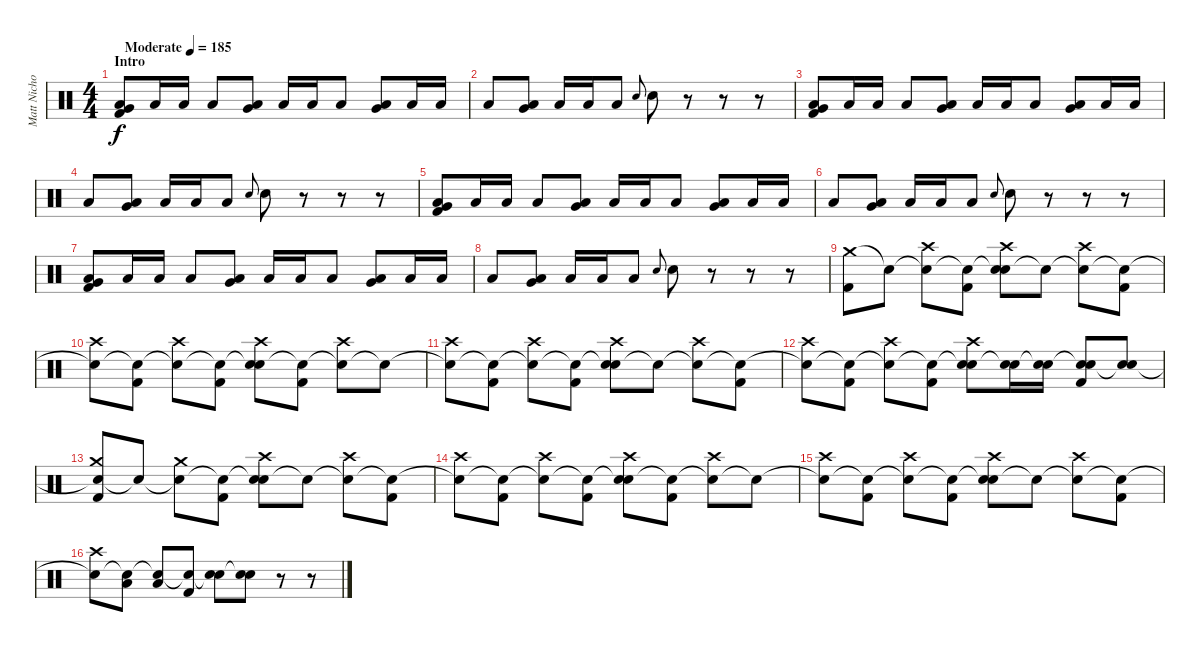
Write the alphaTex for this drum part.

\track ("Matt Nicholls" "Matt Nicho") {instrument percussion}
\staff {score}
\articulation defaults
\ts (4 4)
\section ("" "Intro")
\tempo (185 "Moderate")
\clef neutral
\ks c
("Very Low Tom (hit)" "Low Floor Tom (hit)" "Kick (hit) 2").8{dy f} "Low Floor Tom (hit)".16 "Low Floor Tom (hit)".16 "Low Floor Tom (hit)".8 ("Very Low Tom (hit)" "Low Floor Tom (hit)").8 "Low Floor Tom (hit)".16 "Low Floor Tom (hit)".16 "Low Floor Tom (hit)".8 ("Very Low Tom (hit)" "Low Floor Tom (hit)").8 "Low Floor Tom (hit)".16 "Low Floor Tom (hit)".16 |
"Low Floor Tom (hit)".8 ("Very Low Tom (hit)" "Low Floor Tom (hit)").8 "Low Floor Tom (hit)".16 "Low Floor Tom (hit)".16 "Low Floor Tom (hit)".8 "Electric Snare (hit)".8{gr onbeat} "Electric Snare (hit)".8 r.8 r.8 r.8 |
("Very Low Tom (hit)" "Low Floor Tom (hit)" "Kick (hit) 2").8 "Low Floor Tom (hit)".16 "Low Floor Tom (hit)".16 "Low Floor Tom (hit)".8 ("Very Low Tom (hit)" "Low Floor Tom (hit)").8 "Low Floor Tom (hit)".16 "Low Floor Tom (hit)".16 "Low Floor Tom (hit)".8 ("Very Low Tom (hit)" "Low Floor Tom (hit)").8 "Low Floor Tom (hit)".16 "Low Floor Tom (hit)".16 |
"Low Floor Tom (hit)".8 ("Very Low Tom (hit)" "Low Floor Tom (hit)").8 "Low Floor Tom (hit)".16 "Low Floor Tom (hit)".16 "Low Floor Tom (hit)".8 "Electric Snare (hit)".8{gr onbeat} "Electric Snare (hit)".8 r.8 r.8 r.8 |
("Very Low Tom (hit)" "Low Floor Tom (hit)" "Kick (hit) 2").8 "Low Floor Tom (hit)".16 "Low Floor Tom (hit)".16 "Low Floor Tom (hit)".8 ("Very Low Tom (hit)" "Low Floor Tom (hit)").8 "Low Floor Tom (hit)".16 "Low Floor Tom (hit)".16 "Low Floor Tom (hit)".8 ("Very Low Tom (hit)" "Low Floor Tom (hit)").8 "Low Floor Tom (hit)".16 "Low Floor Tom (hit)".16 |
"Low Floor Tom (hit)".8 ("Very Low Tom (hit)" "Low Floor Tom (hit)").8 "Low Floor Tom (hit)".16 "Low Floor Tom (hit)".16 "Low Floor Tom (hit)".8 "Electric Snare (hit)".8{gr onbeat} "Electric Snare (hit)".8 r.8 r.8 r.8 |
("Very Low Tom (hit)" "Low Floor Tom (hit)" "Kick (hit) 2").8 "Low Floor Tom (hit)".16 "Low Floor Tom (hit)".16 "Low Floor Tom (hit)".8 ("Very Low Tom (hit)" "Low Floor Tom (hit)").8 "Low Floor Tom (hit)".16 "Low Floor Tom (hit)".16 "Low Floor Tom (hit)".8 ("Very Low Tom (hit)" "Low Floor Tom (hit)").8 "Low Floor Tom (hit)".16 "Low Floor Tom (hit)".16 |
"Low Floor Tom (hit)".8 ("Very Low Tom (hit)" "Low Floor Tom (hit)").8 "Low Floor Tom (hit)".16 "Low Floor Tom (hit)".16 "Low Floor Tom (hit)".8 "Electric Snare (hit)".8{gr onbeat} "Electric Snare (hit)".8 r.8 r.8 r.8 |
("Crash medium (hit)" "Kick (hit) 2").8 "Snare (hit)"{t}.8 ("Snare (hit)"{t} "Crash high (hit)").8 ("Snare (hit)"{t} "Kick (hit) 2").8 ("Snare (hit)"{t} "Crash high (hit)" "Electric Snare (hit)").8 "Snare (hit)"{t}.8 ("Snare (hit)"{t} "Crash high (hit)").8 ("Snare (hit)"{t} "Kick (hit) 2").8 |
("Snare (hit)"{t} "Crash high (hit)").8 ("Snare (hit)"{t} "Kick (hit) 2").8 ("Snare (hit)"{t} "Crash high (hit)").8 ("Snare (hit)"{t} "Kick (hit) 2").8 ("Snare (hit)"{t} "Crash high (hit)" "Electric Snare (hit)").8 ("Snare (hit)"{t} "Kick (hit) 2").8 ("Snare (hit)"{t} "Crash high (hit)").8 "Snare (hit)"{t}.8 |
("Snare (hit)"{t} "Crash high (hit)").8 ("Snare (hit)"{t} "Kick (hit) 2").8 ("Snare (hit)"{t} "Crash high (hit)").8 ("Snare (hit)"{t} "Kick (hit) 2").8 ("Snare (hit)"{t} "Crash high (hit)" "Electric Snare (hit)").8 "Snare (hit)"{t}.8 ("Snare (hit)"{t} "Crash high (hit)").8 ("Snare (hit)"{t} "Kick (hit) 2").8 |
("Snare (hit)"{t} "Crash high (hit)").8 ("Snare (hit)"{t} "Kick (hit) 2").8 ("Snare (hit)"{t} "Crash high (hit)").8 ("Snare (hit)"{t} "Kick (hit) 2").8 ("Snare (hit)"{t} "Crash high (hit)" "Electric Snare (hit)").8 ("Snare (hit)"{t} "Electric Snare (hit)").16 ("Snare (hit)"{t} "Electric Snare (hit)").16 ("Snare (hit)"{t} "Electric Snare (hit)" "Kick (hit) 2").8 ("Snare (hit)"{t} "Electric Snare (hit)").8 |
("Snare (hit)"{t} "Crash medium (hit)" "Kick (hit) 2").8 "Snare (hit)"{t}.8 ("Snare (hit)"{t} "Crash medium (hit)").8 ("Snare (hit)"{t} "Kick (hit) 2").8 ("Snare (hit)"{t} "Crash high (hit)" "Electric Snare (hit)").8 "Snare (hit)"{t}.8 ("Snare (hit)"{t} "Crash high (hit)").8 ("Snare (hit)"{t} "Kick (hit) 2").8 |
("Snare (hit)"{t} "Crash high (hit)").8 ("Snare (hit)"{t} "Kick (hit) 2").8 ("Snare (hit)"{t} "Crash high (hit)").8 ("Snare (hit)"{t} "Kick (hit) 2").8 ("Snare (hit)"{t} "Crash high (hit)" "Electric Snare (hit)").8 ("Snare (hit)"{t} "Kick (hit) 2").8 ("Snare (hit)"{t} "Crash high (hit)").8 "Snare (hit)"{t}.8 |
("Snare (hit)"{t} "Crash high (hit)").8 ("Snare (hit)"{t} "Kick (hit) 2").8 ("Snare (hit)"{t} "Crash high (hit)").8 ("Snare (hit)"{t} "Kick (hit) 2").8 ("Snare (hit)"{t} "Crash high (hit)" "Electric Snare (hit)").8 "Snare (hit)"{t}.8 ("Snare (hit)"{t} "Crash high (hit)").8 ("Snare (hit)"{t} "Kick (hit) 2").8 |
("Snare (hit)"{t} "Crash high (hit)").8 ("Snare (hit)"{t} "Low Floor Tom (hit)").8 ("Snare (hit)"{t} "Low Floor Tom (hit)").8 ("Snare (hit)"{t} "Kick (hit) 2").8 ("Snare (hit)"{t} "Electric Snare (hit)").8 ("Snare (hit)"{t} "Electric Snare (hit)").8 r.8 r.8
